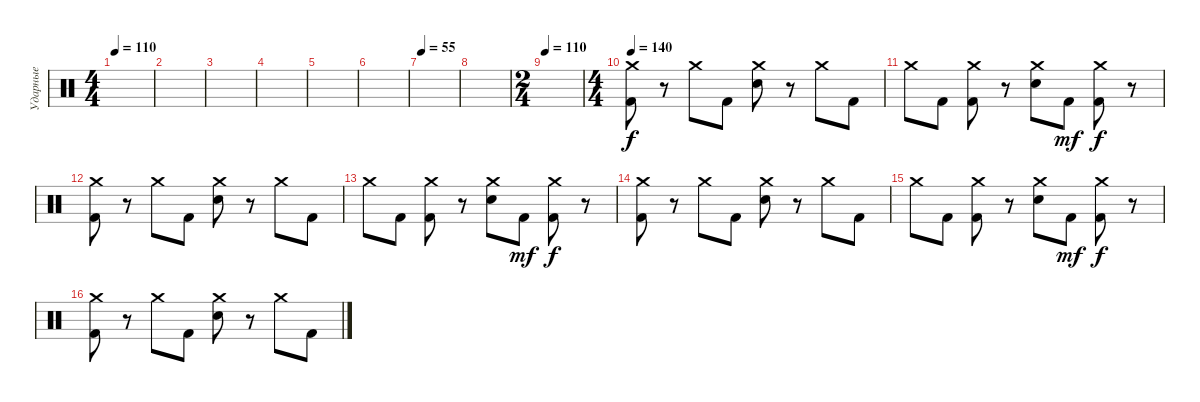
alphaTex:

\track ("Ударные" "Ударные") {instrument percussion}
\staff {score}
\articulation defaults
\ts (4 4)
\tempo 110
\clef neutral
\ks c
|
|
|
|
|
|
\tempo 55
|
|
\ts (2 4)
\tempo 110
|
\ts (4 4)
\tempo 140
("Crash medium (hit)" "Kick (hit) 2").8 r.8 "Crash medium (hit)".8 "Kick (hit) 2".8 ("Crash medium (hit)" "Snare (hit) 2").8 r.8 "Crash medium (hit)".8 "Kick (hit) 2".8 |
"Crash medium (hit)".8 "Kick (hit) 2".8 ("Crash medium (hit)" "Kick (hit) 2").8 r.8 ("Crash medium (hit)" "Snare (hit) 2").8 "Kick (hit) 2".8{dy mf} ("Crash medium (hit)" "Kick (hit) 2").8{dy f} r.8 |
("Crash medium (hit)" "Kick (hit) 2").8 r.8 "Crash medium (hit)".8 "Kick (hit) 2".8 ("Crash medium (hit)" "Snare (hit) 2").8 r.8 "Crash medium (hit)".8 "Kick (hit) 2".8 |
"Crash medium (hit)".8 "Kick (hit) 2".8 ("Crash medium (hit)" "Kick (hit) 2").8 r.8 ("Crash medium (hit)" "Snare (hit) 2").8 "Kick (hit) 2".8{dy mf} ("Crash medium (hit)" "Kick (hit) 2").8{dy f} r.8 |
("Crash medium (hit)" "Kick (hit) 2").8 r.8 "Crash medium (hit)".8 "Kick (hit) 2".8 ("Crash medium (hit)" "Snare (hit) 2").8 r.8 "Crash medium (hit)".8 "Kick (hit) 2".8 |
"Crash medium (hit)".8 "Kick (hit) 2".8 ("Crash medium (hit)" "Kick (hit) 2").8 r.8 ("Crash medium (hit)" "Snare (hit) 2").8 "Kick (hit) 2".8{dy mf} ("Crash medium (hit)" "Kick (hit) 2").8{dy f} r.8 |
("Crash medium (hit)" "Kick (hit) 2").8 r.8 "Crash medium (hit)".8 "Kick (hit) 2".8 ("Crash medium (hit)" "Snare (hit) 2").8 r.8 "Crash medium (hit)".8 "Kick (hit) 2".8
